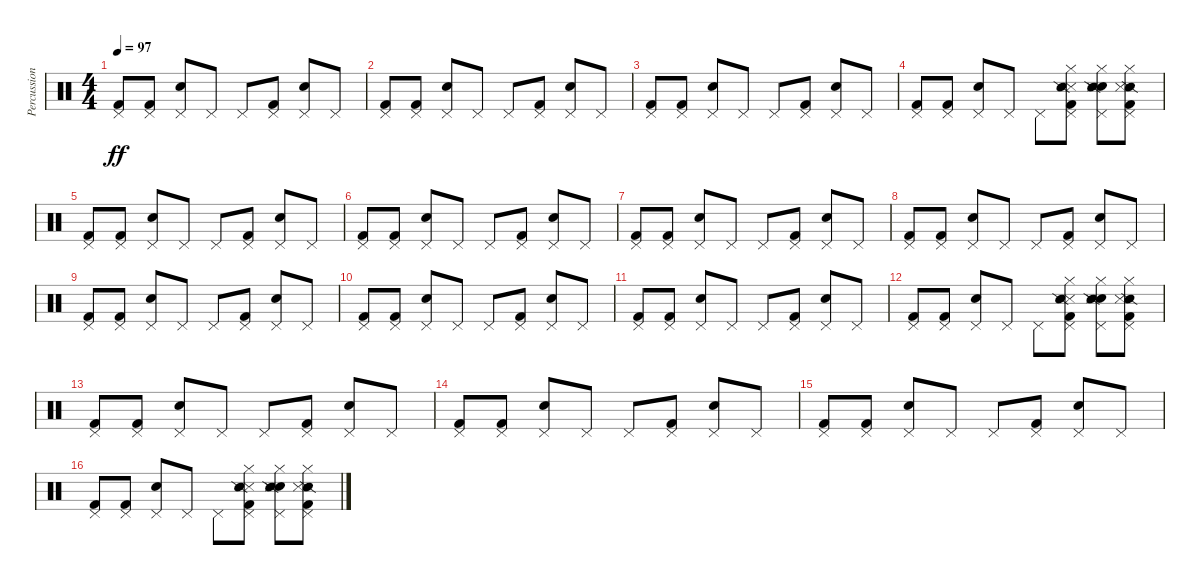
\track ("Percussion" "Percussion") {instrument percussion}
\staff {score}
\articulation defaults
\ts (4 4)
\tempo 97
\clef neutral
\ks c
("Pedal Hi-Hat (hit)" "Kick (hit) 2").8{dy ff} ("Kick (hit) 2" "Pedal Hi-Hat (hit)").8 ("Electric Snare (hit)" "Pedal Hi-Hat (hit)").8 "Pedal Hi-Hat (hit)".8 "Pedal Hi-Hat (hit)".8 ("Kick (hit) 2" "Pedal Hi-Hat (hit)").8 ("Electric Snare (hit)" "Pedal Hi-Hat (hit)").8 "Pedal Hi-Hat (hit)".8 |
("Pedal Hi-Hat (hit)" "Kick (hit) 2").8 ("Kick (hit) 2" "Pedal Hi-Hat (hit)").8 ("Electric Snare (hit)" "Pedal Hi-Hat (hit)").8 "Pedal Hi-Hat (hit)".8 "Pedal Hi-Hat (hit)".8 ("Kick (hit) 2" "Pedal Hi-Hat (hit)").8 ("Electric Snare (hit)" "Pedal Hi-Hat (hit)").8 "Pedal Hi-Hat (hit)".8 |
("Pedal Hi-Hat (hit)" "Kick (hit) 2").8 ("Kick (hit) 2" "Pedal Hi-Hat (hit)").8 ("Electric Snare (hit)" "Pedal Hi-Hat (hit)").8 "Pedal Hi-Hat (hit)".8 "Pedal Hi-Hat (hit)".8 ("Kick (hit) 2" "Pedal Hi-Hat (hit)").8 ("Electric Snare (hit)" "Pedal Hi-Hat (hit)").8 "Pedal Hi-Hat (hit)".8 |
("Kick (hit) 2" "Pedal Hi-Hat (hit)").8 ("Kick (hit) 2" "Pedal Hi-Hat (hit)").8 ("Electric Snare (hit)" "Pedal Hi-Hat (hit)").8 "Pedal Hi-Hat (hit)".8 "Pedal Hi-Hat (hit)".8 ("Snare (side stick) 3" "Snare (side stick) 2" "Hi-Hat (closed)" "Pedal Hi-Hat (hit)" "Kick (hit) 2").8 ("Electric Snare (hit)" "Pedal Hi-Hat (hit)" "Hi-Hat (closed)" "Snare (side stick) 2" "Snare (side stick) 3").8 ("Pedal Hi-Hat (hit)" "Hi-Hat (closed)" "Snare (side stick) 2" "Kick (hit) 2" "Snare (side stick) 3").8 |
("Kick (hit) 2" "Pedal Hi-Hat (hit)").8 ("Kick (hit) 2" "Pedal Hi-Hat (hit)").8 ("Electric Snare (hit)" "Pedal Hi-Hat (hit)").8 "Pedal Hi-Hat (hit)".8 "Pedal Hi-Hat (hit)".8 ("Kick (hit) 2" "Pedal Hi-Hat (hit)").8 ("Electric Snare (hit)" "Pedal Hi-Hat (hit)").8 "Pedal Hi-Hat (hit)".8 |
("Pedal Hi-Hat (hit)" "Kick (hit) 2").8 ("Kick (hit) 2" "Pedal Hi-Hat (hit)").8 ("Electric Snare (hit)" "Pedal Hi-Hat (hit)").8 "Pedal Hi-Hat (hit)".8 "Pedal Hi-Hat (hit)".8 ("Kick (hit) 2" "Pedal Hi-Hat (hit)").8 ("Electric Snare (hit)" "Pedal Hi-Hat (hit)").8 "Pedal Hi-Hat (hit)".8 |
("Pedal Hi-Hat (hit)" "Kick (hit) 2").8 ("Kick (hit) 2" "Pedal Hi-Hat (hit)").8 ("Electric Snare (hit)" "Pedal Hi-Hat (hit)").8 "Pedal Hi-Hat (hit)".8 "Pedal Hi-Hat (hit)".8 ("Kick (hit) 2" "Pedal Hi-Hat (hit)").8 ("Electric Snare (hit)" "Pedal Hi-Hat (hit)").8 "Pedal Hi-Hat (hit)".8 |
("Kick (hit) 2" "Pedal Hi-Hat (hit)").8 ("Kick (hit) 2" "Pedal Hi-Hat (hit)").8 ("Electric Snare (hit)" "Pedal Hi-Hat (hit)").8 "Pedal Hi-Hat (hit)".8 "Pedal Hi-Hat (hit)".8 ("Kick (hit) 2" "Pedal Hi-Hat (hit)").8 ("Electric Snare (hit)" "Pedal Hi-Hat (hit)").8 "Pedal Hi-Hat (hit)".8 |
("Kick (hit) 2" "Pedal Hi-Hat (hit)").8 ("Kick (hit) 2" "Pedal Hi-Hat (hit)").8 ("Electric Snare (hit)" "Pedal Hi-Hat (hit)").8 "Pedal Hi-Hat (hit)".8 "Pedal Hi-Hat (hit)".8 ("Kick (hit) 2" "Pedal Hi-Hat (hit)").8 ("Electric Snare (hit)" "Pedal Hi-Hat (hit)").8 "Pedal Hi-Hat (hit)".8 |
("Pedal Hi-Hat (hit)" "Kick (hit) 2").8 ("Kick (hit) 2" "Pedal Hi-Hat (hit)").8 ("Electric Snare (hit)" "Pedal Hi-Hat (hit)").8 "Pedal Hi-Hat (hit)".8 "Pedal Hi-Hat (hit)".8 ("Kick (hit) 2" "Pedal Hi-Hat (hit)").8 ("Electric Snare (hit)" "Pedal Hi-Hat (hit)").8 "Pedal Hi-Hat (hit)".8 |
("Pedal Hi-Hat (hit)" "Kick (hit) 2").8 ("Kick (hit) 2" "Pedal Hi-Hat (hit)").8 ("Electric Snare (hit)" "Pedal Hi-Hat (hit)").8 "Pedal Hi-Hat (hit)".8 "Pedal Hi-Hat (hit)".8 ("Kick (hit) 2" "Pedal Hi-Hat (hit)").8 ("Electric Snare (hit)" "Pedal Hi-Hat (hit)").8 "Pedal Hi-Hat (hit)".8 |
("Kick (hit) 2" "Pedal Hi-Hat (hit)").8 ("Kick (hit) 2" "Pedal Hi-Hat (hit)").8 ("Electric Snare (hit)" "Pedal Hi-Hat (hit)").8 "Pedal Hi-Hat (hit)".8 "Pedal Hi-Hat (hit)".8 ("Snare (side stick) 3" "Snare (side stick) 2" "Hi-Hat (closed)" "Pedal Hi-Hat (hit)" "Kick (hit) 2").8 ("Electric Snare (hit)" "Pedal Hi-Hat (hit)" "Hi-Hat (closed)" "Snare (side stick) 2" "Snare (side stick) 3").8 ("Pedal Hi-Hat (hit)" "Hi-Hat (closed)" "Snare (side stick) 2" "Kick (hit) 2" "Snare (side stick) 3").8 |
("Kick (hit) 2" "Pedal Hi-Hat (hit)").8 ("Kick (hit) 2" "Pedal Hi-Hat (hit)").8 ("Electric Snare (hit)" "Pedal Hi-Hat (hit)").8 "Pedal Hi-Hat (hit)".8 "Pedal Hi-Hat (hit)".8 ("Kick (hit) 2" "Pedal Hi-Hat (hit)").8 ("Electric Snare (hit)" "Pedal Hi-Hat (hit)").8 "Pedal Hi-Hat (hit)".8 |
("Pedal Hi-Hat (hit)" "Kick (hit) 2").8 ("Kick (hit) 2" "Pedal Hi-Hat (hit)").8 ("Electric Snare (hit)" "Pedal Hi-Hat (hit)").8 "Pedal Hi-Hat (hit)".8 "Pedal Hi-Hat (hit)".8 ("Kick (hit) 2" "Pedal Hi-Hat (hit)").8 ("Electric Snare (hit)" "Pedal Hi-Hat (hit)").8 "Pedal Hi-Hat (hit)".8 |
("Pedal Hi-Hat (hit)" "Kick (hit) 2").8 ("Kick (hit) 2" "Pedal Hi-Hat (hit)").8 ("Electric Snare (hit)" "Pedal Hi-Hat (hit)").8 "Pedal Hi-Hat (hit)".8 "Pedal Hi-Hat (hit)".8 ("Kick (hit) 2" "Pedal Hi-Hat (hit)").8 ("Electric Snare (hit)" "Pedal Hi-Hat (hit)").8 "Pedal Hi-Hat (hit)".8 |
("Pedal Hi-Hat (hit)" "Kick (hit) 2").8 ("Kick (hit) 2" "Pedal Hi-Hat (hit)").8 ("Electric Snare (hit)" "Pedal Hi-Hat (hit)").8 "Pedal Hi-Hat (hit)".8 "Pedal Hi-Hat (hit)".8 ("Snare (side stick) 3" "Snare (side stick) 2" "Hi-Hat (closed)" "Pedal Hi-Hat (hit)" "Kick (hit) 2").8 ("Electric Snare (hit)" "Pedal Hi-Hat (hit)" "Hi-Hat (closed)" "Snare (side stick) 2" "Snare (side stick) 3").8 ("Pedal Hi-Hat (hit)" "Hi-Hat (closed)" "Snare (side stick) 2" "Kick (hit) 2" "Snare (side stick) 3").8
